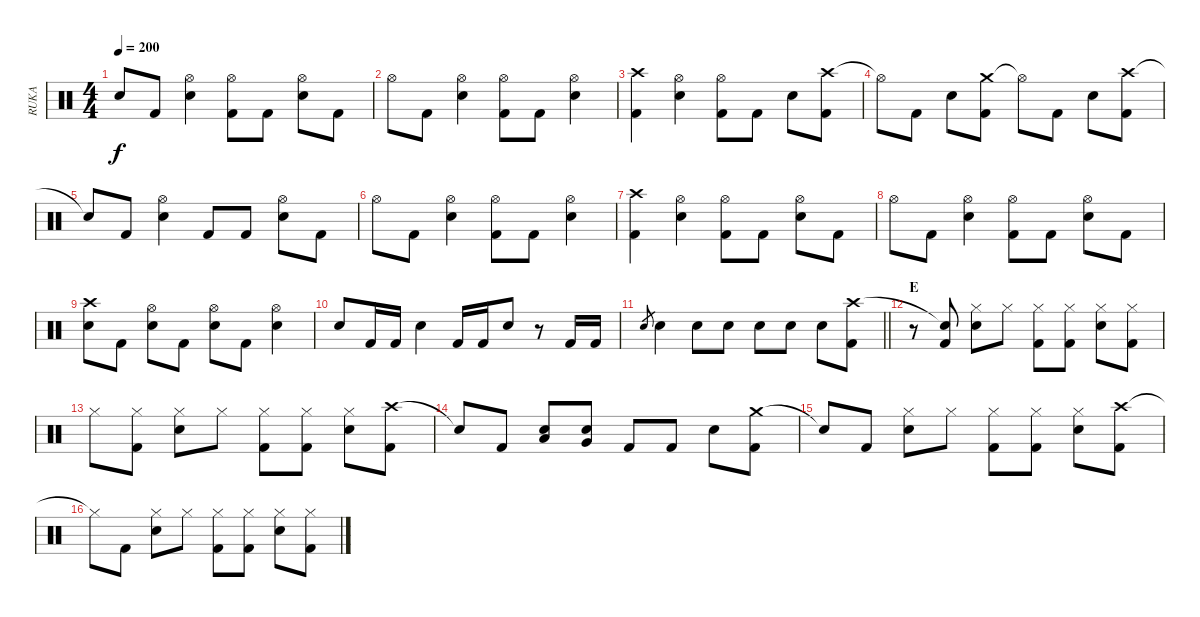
\track ("RUKA" "RUKA") {instrument percussion}
\staff {score}
\articulation defaults
\ts (4 4)
\tempo 200
\clef neutral
\ks c "Snare (hit)"{t}.8{dy f} "Kick (hit) 2".8
("Hi-Hat (open)" "Snare (hit) 2").4 ("Hi-Hat (open)" "Kick (hit) 2").8 "Kick (hit) 2".8 ("Hi-Hat (open)" "Snare (hit) 2").8 "Kick (hit) 2".8 |
"Hi-Hat (open)".8 "Kick (hit) 2".8 ("Hi-Hat (open)" "Snare (hit) 2").4 ("Hi-Hat (open)" "Kick (hit) 2").8 "Kick (hit) 2".8 ("Hi-Hat (open)" "Snare (hit) 2").4 |
("Crash high (hit)" "Kick (hit) 2").4 ("Hi-Hat (open)" "Snare (hit) 2").4 ("Hi-Hat (open)" "Kick (hit) 2").8 "Kick (hit) 2".8 "Snare (hit) 2".8 ("Crash high (hit)" "Kick (hit) 2").8 |
"Hi-Hat (open)"{t}.8 "Kick (hit) 2".8 "Snare (hit) 2".8 ("Crash medium (hit)" "Kick (hit) 2").8 "Hi-Hat (open)"{t}.8 "Kick (hit) 2".8 "Snare (hit) 2".8 ("Crash high (hit)" "Kick (hit) 2").8 |
"Snare (hit)"{t}.8 "Kick (hit) 2".8 ("Hi-Hat (open)" "Snare (hit) 2").4 "Kick (hit) 2".8 "Kick (hit) 2".8 ("Hi-Hat (open)" "Snare (hit) 2").8 "Kick (hit) 2".8 |
"Hi-Hat (open)".8 "Kick (hit) 2".8 ("Hi-Hat (open)" "Snare (hit) 2").4 ("Hi-Hat (open)" "Kick (hit) 2").8 "Kick (hit) 2".8 ("Hi-Hat (open)" "Snare (hit) 2").4 |
("Crash high (hit)" "Kick (hit) 2").4 ("Hi-Hat (open)" "Snare (hit) 2").4 ("Hi-Hat (open)" "Kick (hit) 2").8 "Kick (hit) 2".8 ("Hi-Hat (open)" "Snare (hit) 2").8 "Kick (hit) 2".8 |
"Hi-Hat (open)".8 "Kick (hit) 2".8 ("Hi-Hat (open)" "Snare (hit) 2").4 ("Hi-Hat (open)" "Kick (hit) 2").8 "Kick (hit) 2".8 ("Hi-Hat (open)" "Snare (hit) 2").8 "Kick (hit) 2".8 |
("Crash high (hit)" "Snare (hit) 2").8 "Kick (hit) 2".8 ("Hi-Hat (open)" "Snare (hit) 2").8 "Kick (hit) 2".8 ("Hi-Hat (open)" "Snare (hit) 2").8 "Kick (hit) 2".8 ("Hi-Hat (open)" "Snare (hit) 2").4 |
"Snare (hit) 2".8 "Kick (hit) 2".16 "Kick (hit) 2".16 "Snare (hit) 2".4 "Kick (hit) 2".16 "Kick (hit) 2".16 "Snare (hit) 2".8 r.8 "Kick (hit) 2".16 "Kick (hit) 2".16 |
\barLineRight lightlight "Snare (hit) 2".8{gr} "Snare (hit) 2".4 "Snare (hit) 2".8 "Snare (hit) 2".8 "Snare (hit) 2".8 "Snare (hit) 2".8 "Snare (hit) 2".8
("Crash high (hit)" "Kick (hit) 2").8 |
\section ("" "E")
r.8 ("Snare (hit)"{t} "Kick (hit) 2").8 ("Hi-Hat (closed)" "Snare (hit) 2").8 "Hi-Hat (closed)".8 ("Hi-Hat (closed)" "Kick (hit) 2").8 ("Hi-Hat (closed)" "Kick (hit) 2").8 ("Hi-Hat (closed)" "Snare (hit) 2").8 ("Hi-Hat (closed)" "Kick (hit) 2").8 |
"Hi-Hat (closed)".8 ("Hi-Hat (closed)" "Kick (hit) 2").8 ("Hi-Hat (closed)" "Snare (hit) 2").8 "Hi-Hat (closed)".8 ("Hi-Hat (closed)" "Kick (hit) 2").8 ("Hi-Hat (closed)" "Kick (hit) 2").8 ("Hi-Hat (closed)" "Snare (hit) 2").8 ("Crash high (hit)" "Kick (hit) 2").8 |
"Snare (hit)"{t}.8 "Kick (hit) 2".8 ("Snare (hit) 2" "Low Tom (hit)").8 ("Snare (hit) 2" "Very Low Tom (hit)").8 "Kick (hit) 2".8 "Kick (hit) 2".8 "Snare (hit) 2".8 ("Crash medium (hit)" "Kick (hit) 2").8 |
"Snare (hit)"{t}.8 "Kick (hit) 2".8 ("Hi-Hat (closed)" "Snare (hit) 2").8 "Hi-Hat (closed)".8 ("Hi-Hat (closed)" "Kick (hit) 2").8 ("Hi-Hat (closed)" "Kick (hit) 2").8 ("Hi-Hat (closed)" "Snare (hit) 2").8 ("Crash high (hit)" "Kick (hit) 2").8 |
"Hi-Hat (closed)"{t}.8 "Kick (hit) 2".8 ("Hi-Hat (closed)" "Snare (hit) 2").8 "Hi-Hat (closed)".8 ("Hi-Hat (closed)" "Kick (hit) 2").8 ("Hi-Hat (closed)" "Kick (hit) 2").8 ("Hi-Hat (closed)" "Snare (hit) 2").8 ("Hi-Hat (closed)" "Kick (hit) 2").8
